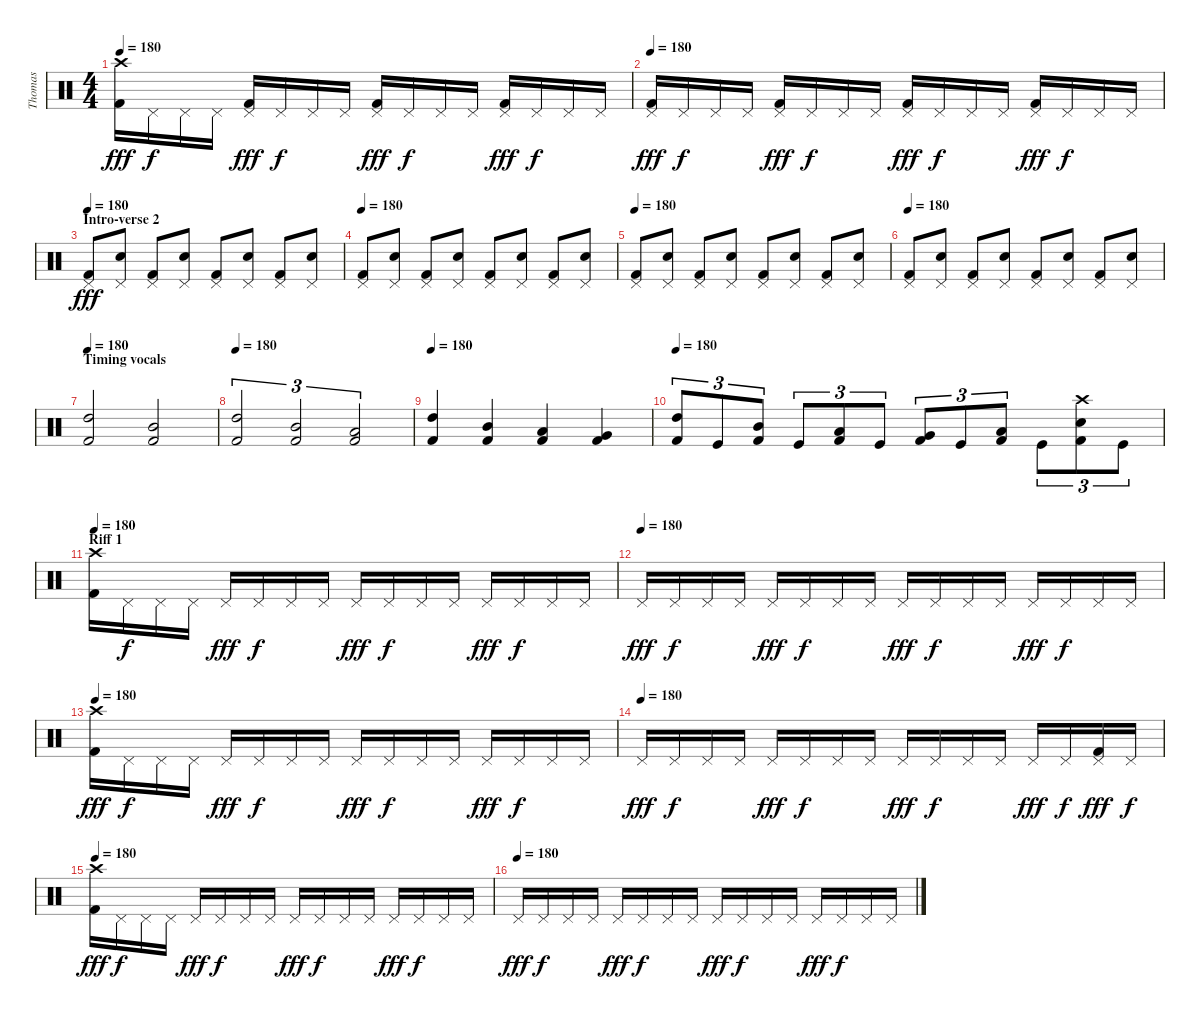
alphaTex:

\track ("Thomas" "Thomas") {instrument percussion}
\staff {score}
\articulation defaults
\ts (4 4)
\tempo 180
\clef neutral
\ks c
("Crash high (hit)" "Kick (hit) 2").16{dy fff} "Pedal Hi-Hat (hit)".16{dy f} "Pedal Hi-Hat (hit)".16 "Pedal Hi-Hat (hit)".16 ("Pedal Hi-Hat (hit)" "Kick (hit) 2").16{dy fff} "Pedal Hi-Hat (hit)".16{dy f} "Pedal Hi-Hat (hit)".16 "Pedal Hi-Hat (hit)".16 ("Pedal Hi-Hat (hit)" "Kick (hit) 2").16{dy fff} "Pedal Hi-Hat (hit)".16{dy f} "Pedal Hi-Hat (hit)".16 "Pedal Hi-Hat (hit)".16 ("Pedal Hi-Hat (hit)" "Kick (hit) 2").16{dy fff} "Pedal Hi-Hat (hit)".16{dy f} "Pedal Hi-Hat (hit)".16 "Pedal Hi-Hat (hit)".16 |
\tempo 180
("Pedal Hi-Hat (hit)" "Kick (hit) 2").16{dy fff} "Pedal Hi-Hat (hit)".16{dy f} "Pedal Hi-Hat (hit)".16 "Pedal Hi-Hat (hit)".16 ("Pedal Hi-Hat (hit)" "Kick (hit) 2").16{dy fff} "Pedal Hi-Hat (hit)".16{dy f} "Pedal Hi-Hat (hit)".16 "Pedal Hi-Hat (hit)".16 ("Pedal Hi-Hat (hit)" "Kick (hit) 2").16{dy fff} "Pedal Hi-Hat (hit)".16{dy f} "Pedal Hi-Hat (hit)".16 "Pedal Hi-Hat (hit)".16 ("Pedal Hi-Hat (hit)" "Kick (hit) 2").16{dy fff} "Pedal Hi-Hat (hit)".16{dy f} "Pedal Hi-Hat (hit)".16 "Pedal Hi-Hat (hit)".16 |
\section ("" "Intro-verse 2")
\tempo 180
("Pedal Hi-Hat (hit)" "Kick (hit) 2").8{dy fff} ("Pedal Hi-Hat (hit)" "Snare (hit) 2").8 ("Pedal Hi-Hat (hit)" "Kick (hit) 2").8 ("Pedal Hi-Hat (hit)" "Snare (hit) 2").8 ("Pedal Hi-Hat (hit)" "Kick (hit) 2").8 ("Pedal Hi-Hat (hit)" "Snare (hit) 2").8 ("Pedal Hi-Hat (hit)" "Kick (hit) 2").8 ("Pedal Hi-Hat (hit)" "Snare (hit) 2").8 |
\tempo 180
("Pedal Hi-Hat (hit)" "Kick (hit) 2").8 ("Pedal Hi-Hat (hit)" "Snare (hit) 2").8 ("Pedal Hi-Hat (hit)" "Kick (hit) 2").8 ("Pedal Hi-Hat (hit)" "Snare (hit) 2").8 ("Pedal Hi-Hat (hit)" "Kick (hit) 2").8 ("Pedal Hi-Hat (hit)" "Snare (hit) 2").8 ("Pedal Hi-Hat (hit)" "Kick (hit) 2").8 ("Pedal Hi-Hat (hit)" "Snare (hit) 2").8 |
\tempo 180
("Pedal Hi-Hat (hit)" "Kick (hit) 2").8 ("Pedal Hi-Hat (hit)" "Snare (hit) 2").8 ("Pedal Hi-Hat (hit)" "Kick (hit) 2").8 ("Pedal Hi-Hat (hit)" "Snare (hit) 2").8 ("Pedal Hi-Hat (hit)" "Kick (hit) 2").8 ("Pedal Hi-Hat (hit)" "Snare (hit) 2").8 ("Pedal Hi-Hat (hit)" "Kick (hit) 2").8 ("Pedal Hi-Hat (hit)" "Snare (hit) 2").8 |
\tempo 180
("Pedal Hi-Hat (hit)" "Kick (hit) 2").8 ("Pedal Hi-Hat (hit)" "Snare (hit) 2").8 ("Pedal Hi-Hat (hit)" "Kick (hit) 2").8 ("Pedal Hi-Hat (hit)" "Snare (hit) 2").8 ("Pedal Hi-Hat (hit)" "Kick (hit) 2").8 ("Pedal Hi-Hat (hit)" "Snare (hit) 2").8 ("Pedal Hi-Hat (hit)" "Kick (hit) 2").8 ("Pedal Hi-Hat (hit)" "Snare (hit) 2").8 |
\section ("" "Timing vocals")
\tempo 180
("High Tom (hit)" "Kick (hit) 2").2 ("Mid Tom (hit)" "Kick (hit) 2").2 |
\tempo 180
("High Tom (hit)" "Kick (hit) 2").2{tu (3 2)} ("Mid Tom (hit)" "Kick (hit) 2").2{tu (3 2)} ("Low Tom (hit)" "Kick (hit) 2").2{tu (3 2)} |
\tempo 180
("High Tom (hit)" "Kick (hit) 2").4 ("Mid Tom (hit)" "Kick (hit) 2").4 ("Low Tom (hit)" "Kick (hit) 2").4 ("Very Low Tom (hit)" "Kick (hit) 2").4 |
\tempo 180
("High Tom (hit)" "Kick (hit) 2").8{tu (3 2)} "Kick (hit)".8{tu (3 2)} ("Mid Tom (hit)" "Kick (hit) 2").8{tu (3 2)} "Kick (hit)".8{tu (3 2)} ("Low Tom (hit)" "Kick (hit) 2").8{tu (3 2)} "Kick (hit)".8{tu (3 2)} ("Very Low Tom (hit)" "Kick (hit) 2").8{tu (3 2)} "Kick (hit)".8{tu (3 2)} ("Low Floor Tom (hit)" "Kick (hit) 2").8{tu (3 2)} "Kick (hit)".8{tu (3 2)} ("Crash high (hit)" "Snare (hit) 2" "Kick (hit) 2").8{tu (3 2)} "Kick (hit)".8{tu (3 2)} |
\section ("" "Riff 1")
\tempo 180
("Crash high (hit)" "Kick (hit) 2").16 "Pedal Hi-Hat (hit)".16{dy f} "Pedal Hi-Hat (hit)".16 "Pedal Hi-Hat (hit)".16 "Pedal Hi-Hat (hit)".16{dy fff} "Pedal Hi-Hat (hit)".16{dy f} "Pedal Hi-Hat (hit)".16 "Pedal Hi-Hat (hit)".16 "Pedal Hi-Hat (hit)".16{dy fff} "Pedal Hi-Hat (hit)".16{dy f} "Pedal Hi-Hat (hit)".16 "Pedal Hi-Hat (hit)".16 "Pedal Hi-Hat (hit)".16{dy fff} "Pedal Hi-Hat (hit)".16{dy f} "Pedal Hi-Hat (hit)".16 "Pedal Hi-Hat (hit)".16 |
\tempo (180)
"Pedal Hi-Hat (hit)".16{dy fff} "Pedal Hi-Hat (hit)".16{dy f} "Pedal Hi-Hat (hit)".16 "Pedal Hi-Hat (hit)".16 "Pedal Hi-Hat (hit)".16{dy fff} "Pedal Hi-Hat (hit)".16{dy f} "Pedal Hi-Hat (hit)".16 "Pedal Hi-Hat (hit)".16 "Pedal Hi-Hat (hit)".16{dy fff} "Pedal Hi-Hat (hit)".16{dy f} "Pedal Hi-Hat (hit)".16 "Pedal Hi-Hat (hit)".16 "Pedal Hi-Hat (hit)".16{dy fff} "Pedal Hi-Hat (hit)".16{dy f} "Pedal Hi-Hat (hit)".16 "Pedal Hi-Hat (hit)".16 |
\tempo 180
("Crash high (hit)" "Kick (hit) 2").16{dy fff} "Pedal Hi-Hat (hit)".16{dy f} "Pedal Hi-Hat (hit)".16 "Pedal Hi-Hat (hit)".16 "Pedal Hi-Hat (hit)".16{dy fff} "Pedal Hi-Hat (hit)".16{dy f} "Pedal Hi-Hat (hit)".16 "Pedal Hi-Hat (hit)".16 "Pedal Hi-Hat (hit)".16{dy fff} "Pedal Hi-Hat (hit)".16{dy f} "Pedal Hi-Hat (hit)".16 "Pedal Hi-Hat (hit)".16 "Pedal Hi-Hat (hit)".16{dy fff} "Pedal Hi-Hat (hit)".16{dy f} "Pedal Hi-Hat (hit)".16 "Pedal Hi-Hat (hit)".16 |
\tempo (180)
"Pedal Hi-Hat (hit)".16{dy fff} "Pedal Hi-Hat (hit)".16{dy f} "Pedal Hi-Hat (hit)".16 "Pedal Hi-Hat (hit)".16 "Pedal Hi-Hat (hit)".16{dy fff} "Pedal Hi-Hat (hit)".16{dy f} "Pedal Hi-Hat (hit)".16 "Pedal Hi-Hat (hit)".16 "Pedal Hi-Hat (hit)".16{dy fff} "Pedal Hi-Hat (hit)".16{dy f} "Pedal Hi-Hat (hit)".16 "Pedal Hi-Hat (hit)".16 "Pedal Hi-Hat (hit)".16{dy fff} "Pedal Hi-Hat (hit)".16{dy f} ("Pedal Hi-Hat (hit)" "Kick (hit) 2").16{dy fff} "Pedal Hi-Hat (hit)".16{dy f} |
\tempo 180
("Crash high (hit)" "Kick (hit) 2").16{dy fff} "Pedal Hi-Hat (hit)".16{dy f} "Pedal Hi-Hat (hit)".16 "Pedal Hi-Hat (hit)".16 "Pedal Hi-Hat (hit)".16{dy fff} "Pedal Hi-Hat (hit)".16{dy f} "Pedal Hi-Hat (hit)".16 "Pedal Hi-Hat (hit)".16 "Pedal Hi-Hat (hit)".16{dy fff} "Pedal Hi-Hat (hit)".16{dy f} "Pedal Hi-Hat (hit)".16 "Pedal Hi-Hat (hit)".16 "Pedal Hi-Hat (hit)".16{dy fff} "Pedal Hi-Hat (hit)".16{dy f} "Pedal Hi-Hat (hit)".16 "Pedal Hi-Hat (hit)".16 |
\tempo (180)
"Pedal Hi-Hat (hit)".16{dy fff} "Pedal Hi-Hat (hit)".16{dy f} "Pedal Hi-Hat (hit)".16 "Pedal Hi-Hat (hit)".16 "Pedal Hi-Hat (hit)".16{dy fff} "Pedal Hi-Hat (hit)".16{dy f} "Pedal Hi-Hat (hit)".16 "Pedal Hi-Hat (hit)".16 "Pedal Hi-Hat (hit)".16{dy fff} "Pedal Hi-Hat (hit)".16{dy f} "Pedal Hi-Hat (hit)".16 "Pedal Hi-Hat (hit)".16 "Pedal Hi-Hat (hit)".16{dy fff} "Pedal Hi-Hat (hit)".16{dy f} "Pedal Hi-Hat (hit)".16 "Pedal Hi-Hat (hit)".16
